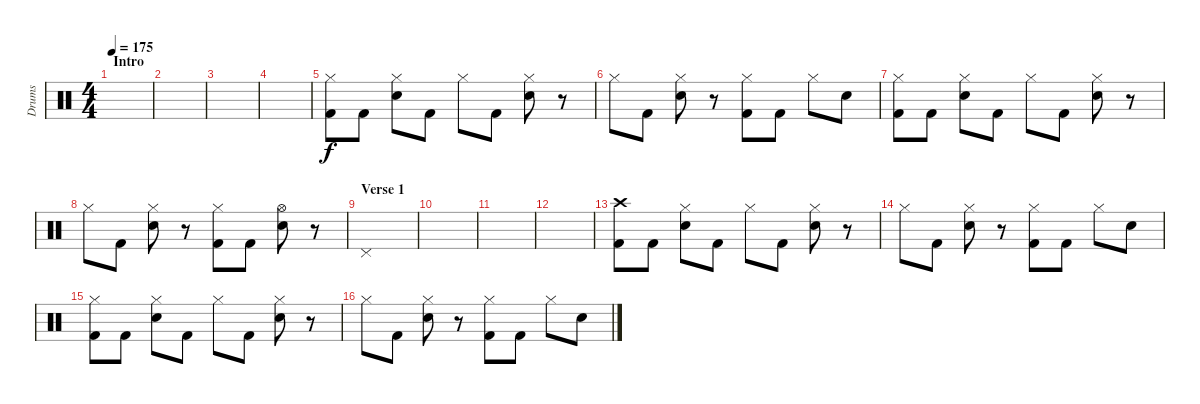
\track ("Drums" "Drums") {instrument percussion}
\staff {score}
\articulation defaults
\ts (4 4)
\section ("" "Intro")
\tempo 175
\clef neutral
\ks c
|
|
|
|
("Hi-Hat (closed)" "Kick (hit) 2").8 "Kick (hit) 2".8 ("Hi-Hat (closed)" "Snare (hit) 2").8 "Kick (hit) 2".8 "Hi-Hat (closed)".8 "Kick (hit) 2".8 ("Hi-Hat (closed)" "Snare (hit) 2").8 r.8 |
"Hi-Hat (closed)".8 "Kick (hit) 2".8 ("Hi-Hat (closed)" "Snare (hit) 2").8 r.8 ("Hi-Hat (closed)" "Kick (hit) 2").8 "Kick (hit) 2".8 "Hi-Hat (closed)".8 "Snare (hit) 2".8 |
("Hi-Hat (closed)" "Kick (hit) 2").8 "Kick (hit) 2".8 ("Hi-Hat (closed)" "Snare (hit) 2").8 "Kick (hit) 2".8 "Hi-Hat (closed)".8 "Kick (hit) 2".8 ("Hi-Hat (closed)" "Snare (hit) 2").8 r.8 |
"Hi-Hat (closed)".8 "Kick (hit) 2".8 ("Hi-Hat (closed)" "Snare (hit) 2").8 r.8 ("Hi-Hat (closed)" "Kick (hit) 2").8 "Kick (hit) 2".8 ("Hi-Hat (open)" "Snare (hit) 2").8 r.8 |
\section ("" "Verse 1")
"Pedal Hi-Hat (hit)".1 |
|
|
|
("Crash high (hit)" "Kick (hit) 2").8 "Kick (hit) 2".8 ("Hi-Hat (closed)" "Snare (hit) 2").8 "Kick (hit) 2".8 "Hi-Hat (closed)".8 "Kick (hit) 2".8 ("Hi-Hat (closed)" "Snare (hit) 2").8 r.8 |
"Hi-Hat (closed)".8 "Kick (hit) 2".8 ("Hi-Hat (closed)" "Snare (hit) 2").8 r.8 ("Hi-Hat (closed)" "Kick (hit) 2").8 "Kick (hit) 2".8 "Hi-Hat (closed)".8 "Snare (hit) 2".8 |
("Hi-Hat (closed)" "Kick (hit) 2").8 "Kick (hit) 2".8 ("Hi-Hat (closed)" "Snare (hit) 2").8 "Kick (hit) 2".8 "Hi-Hat (closed)".8 "Kick (hit) 2".8 ("Hi-Hat (closed)" "Snare (hit) 2").8 r.8 |
"Hi-Hat (closed)".8 "Kick (hit) 2".8 ("Hi-Hat (closed)" "Snare (hit) 2").8 r.8 ("Hi-Hat (closed)" "Kick (hit) 2").8 "Kick (hit) 2".8 "Hi-Hat (closed)".8 "Snare (hit) 2".8
